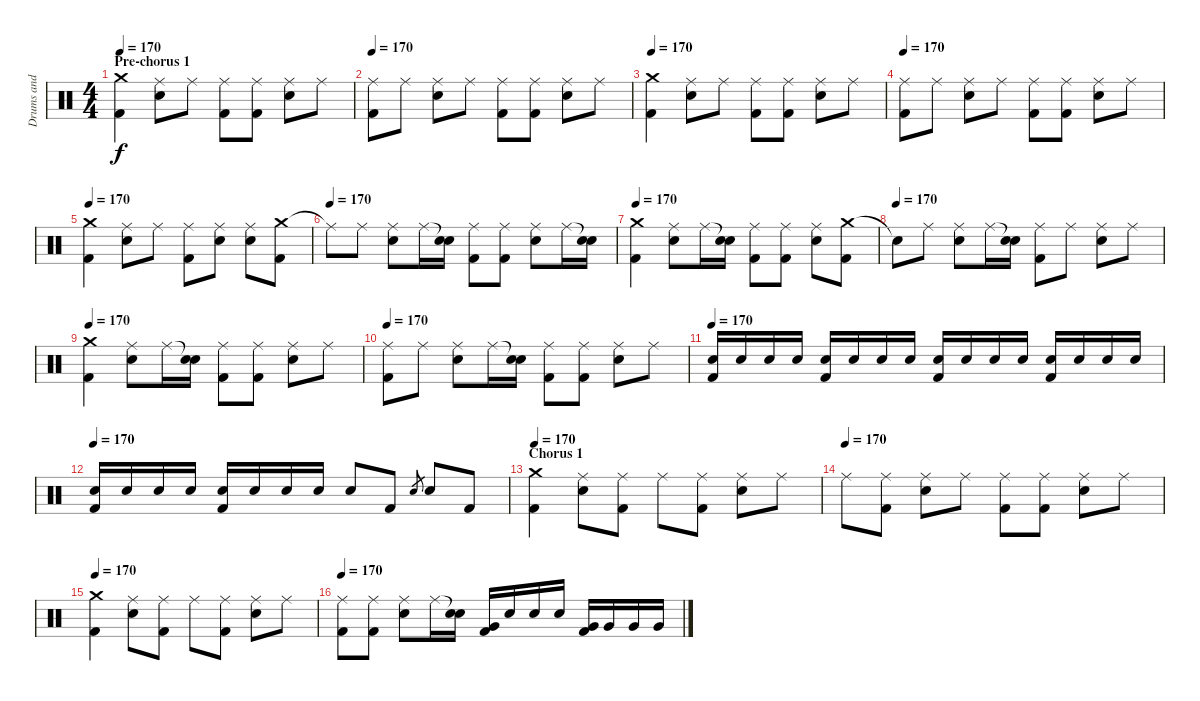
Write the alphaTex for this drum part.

\track ("Drums and Percussion" "Drums and ") {instrument percussion}
\staff {score}
\articulation defaults
\ts (4 4)
\section ("" "Pre-chorus 1")
\tempo 170
\clef neutral
\ks c
("Crash medium (hit)" "Kick (hit) 2").4{dy f} ("Ride (middle)" "Electric Snare (hit)").8 "Ride (middle)".8 ("Ride (middle)" "Kick (hit) 2").8 ("Ride (middle)" "Kick (hit) 2").8 ("Ride (middle)" "Electric Snare (hit)").8 "Ride (middle)".8 |
\tempo 170
("Ride (middle)" "Kick (hit) 2").8 "Ride (middle)".8 ("Ride (middle)" "Electric Snare (hit)").8 "Ride (middle)".8 ("Ride (middle)" "Kick (hit) 2").8 ("Ride (middle)" "Kick (hit) 2").8 ("Ride (middle)" "Electric Snare (hit)").8 "Ride (middle)".8 |
\tempo 170
("Crash medium (hit)" "Kick (hit) 2").4 ("Ride (middle)" "Electric Snare (hit)").8 "Ride (middle)".8 ("Ride (middle)" "Kick (hit) 2").8 ("Ride (middle)" "Kick (hit) 2").8 ("Ride (middle)" "Electric Snare (hit)").8 "Ride (middle)".8 |
\tempo 170
("Ride (middle)" "Kick (hit) 2").8 "Ride (middle)".8 ("Ride (middle)" "Electric Snare (hit)").8 "Ride (middle)".8 ("Ride (middle)" "Kick (hit) 2").8 ("Ride (middle)" "Kick (hit) 2").8 ("Ride (middle)" "Electric Snare (hit)").8 "Ride (middle)".8 |
\tempo 170
("Crash medium (hit)" "Kick (hit) 2").4 ("Ride (middle)" "Electric Snare (hit)").8 "Ride (middle)".8 ("Ride (middle)" "Kick (hit) 2").8 ("Ride (middle)" "Electric Snare (hit)").8 ("Ride (middle)" "Electric Snare (hit)").8 ("Crash medium (hit)" "Kick (hit) 2").8 |
\tempo (170)
"Ride (middle)"{t}.8 "Ride (middle)".8 ("Ride (middle)" "Electric Snare (hit)").8 "Ride (middle)".16 ("Snare (hit)"{t} "Electric Snare (hit)").16 ("Ride (middle)" "Kick (hit) 2").8 ("Ride (middle)" "Kick (hit) 2").8 ("Ride (middle)" "Electric Snare (hit)").8 "Ride (middle)".16 ("Snare (hit)"{t} "Electric Snare (hit)").16 |
\tempo 170
("Crash medium (hit)" "Kick (hit) 2").4 ("Ride (middle)" "Electric Snare (hit)").8 "Ride (middle)".16 ("Snare (hit)"{t} "Electric Snare (hit)").16 ("Ride (middle)" "Kick (hit) 2").8 ("Ride (middle)" "Kick (hit) 2").8 ("Ride (middle)" "Electric Snare (hit)").8 ("Crash medium (hit)" "Kick (hit) 2").8 |
\tempo (170)
"Snare (hit)"{t}.8 "Ride (middle)".8 ("Ride (middle)" "Electric Snare (hit)").8 "Ride (middle)".16 ("Snare (hit)"{t} "Electric Snare (hit)").16 ("Ride (middle)" "Kick (hit) 2").8 "Ride (middle)".8 ("Ride (middle)" "Electric Snare (hit)").8 "Ride (middle)".8 |
\tempo 170
("Crash medium (hit)" "Kick (hit) 2").4 ("Ride (middle)" "Electric Snare (hit)").8 "Ride (middle)".16 ("Snare (hit)"{t} "Electric Snare (hit)").16 ("Ride (middle)" "Kick (hit) 2").8 ("Ride (middle)" "Kick (hit) 2").8 ("Ride (middle)" "Electric Snare (hit)").8 "Ride (middle)".8 |
\tempo 170
("Ride (middle)" "Kick (hit) 2").8 "Ride (middle)".8 ("Ride (middle)" "Electric Snare (hit)").8 "Ride (middle)".16 ("Snare (hit)"{t} "Electric Snare (hit)").16 ("Ride (middle)" "Kick (hit) 2").8 ("Ride (middle)" "Kick (hit) 2").8 ("Ride (middle)" "Electric Snare (hit)").8 "Ride (middle)".8 |
\tempo 170
("Electric Snare (hit)" "Kick (hit) 2").16 "Electric Snare (hit)".16 "Electric Snare (hit)".16 "Electric Snare (hit)".16 ("Electric Snare (hit)" "Kick (hit) 2").16 "Electric Snare (hit)".16 "Electric Snare (hit)".16 "Electric Snare (hit)".16 ("Electric Snare (hit)" "Kick (hit) 2").16 "Electric Snare (hit)".16 "Electric Snare (hit)".16 "Electric Snare (hit)".16 ("Electric Snare (hit)" "Kick (hit) 2").16 "Electric Snare (hit)".16 "Electric Snare (hit)".16 "Electric Snare (hit)".16 |
\tempo 170
("Electric Snare (hit)" "Kick (hit) 2").16 "Electric Snare (hit)".16 "Electric Snare (hit)".16 "Electric Snare (hit)".16 ("Electric Snare (hit)" "Kick (hit) 2").16 "Electric Snare (hit)".16 "Electric Snare (hit)".16 "Electric Snare (hit)".16 "Electric Snare (hit)".8 "Kick (hit) 2".8 "Electric Snare (hit)".8{gr} "Electric Snare (hit)".8 "Kick (hit) 2".8 |
\section ("" "Chorus 1")
\tempo 170
("Crash medium (hit)" "Kick (hit) 2").4 ("Ride (middle)" "Electric Snare (hit)").8 ("Ride (middle)" "Kick (hit) 2").8 "Ride (middle)".8 ("Ride (middle)" "Kick (hit) 2").8 ("Ride (middle)" "Electric Snare (hit)").8 "Ride (middle)".8 |
\tempo (170)
"Ride (middle)".8 ("Ride (middle)" "Kick (hit) 2").8 ("Ride (middle)" "Electric Snare (hit)").8 "Ride (middle)".8 ("Ride (middle)" "Kick (hit) 2").8 ("Ride (middle)" "Kick (hit) 2").8 ("Ride (middle)" "Electric Snare (hit)").8 "Ride (middle)".8 |
\tempo 170
("Crash medium (hit)" "Kick (hit) 2").4 ("Ride (middle)" "Electric Snare (hit)").8 ("Ride (middle)" "Kick (hit) 2").8 "Ride (middle)".8 ("Ride (middle)" "Kick (hit) 2").8 ("Ride (middle)" "Electric Snare (hit)").8 "Ride (middle)".8 |
\tempo 170
("Ride (middle)" "Kick (hit) 2").8 ("Ride (middle)" "Kick (hit) 2").8 ("Ride (middle)" "Electric Snare (hit)").8 "Ride (middle)".16 ("Snare (hit)"{t} "Electric Snare (hit)").16 ("Very Low Tom (hit)" "Kick (hit) 2").16 "Electric Snare (hit)".16 "Electric Snare (hit)".16 "Electric Snare (hit)".16 ("Very Low Tom (hit)" "Kick (hit) 2").16 "Very Low Tom (hit)".16 "Very Low Tom (hit)".16 "Very Low Tom (hit)".16
